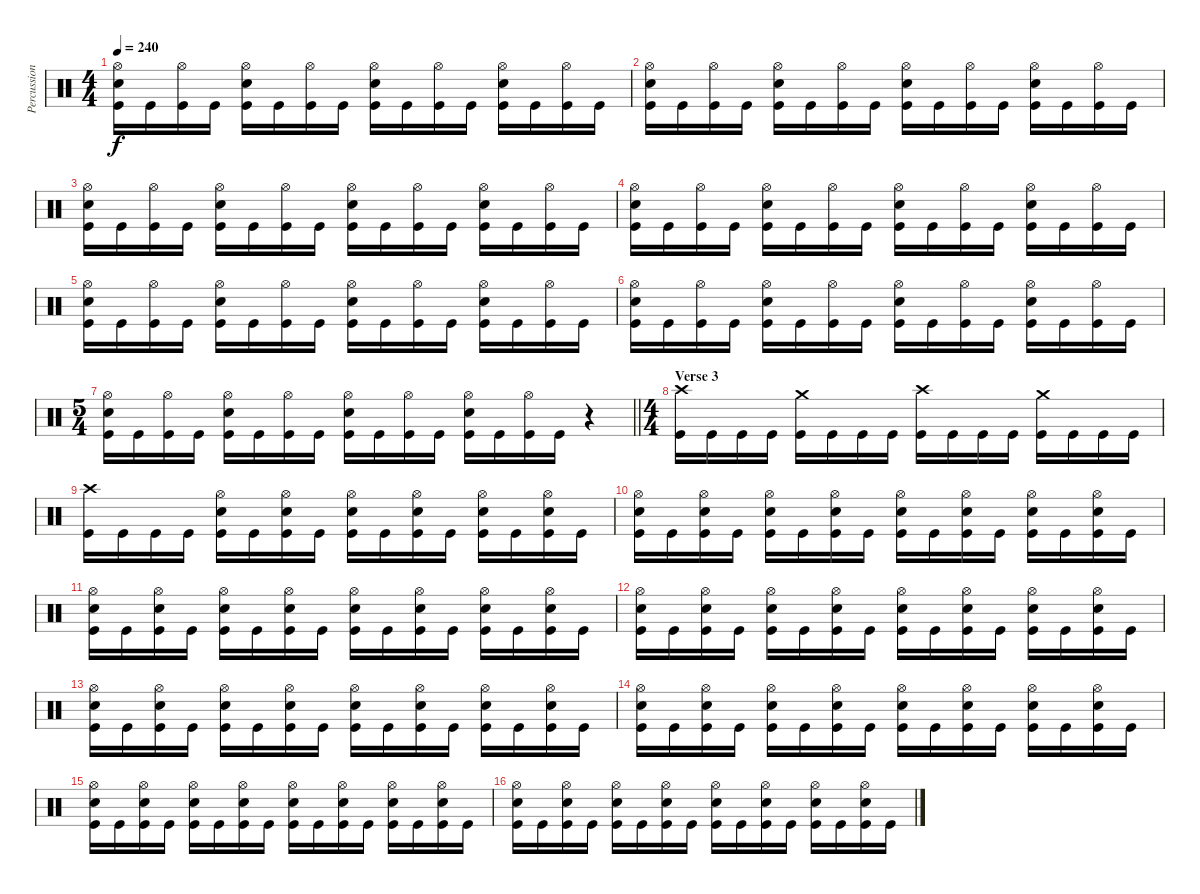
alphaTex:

\track ("Percussion" "Percussion") {instrument percussion}
\staff {score}
\articulation defaults
\ts (4 4)
\tempo 240
\clef neutral
\ks c
("Hi-Hat (open)" "Snare (hit) 2" "Kick (hit)").16{dy f} "Kick (hit)".16 ("Hi-Hat (open)" "Kick (hit)").16 "Kick (hit)".16 ("Hi-Hat (open)" "Snare (hit) 2" "Kick (hit)").16 "Kick (hit)".16 ("Hi-Hat (open)" "Kick (hit)").16 "Kick (hit)".16 ("Hi-Hat (open)" "Snare (hit) 2" "Kick (hit)").16 "Kick (hit)".16 ("Hi-Hat (open)" "Kick (hit)").16 "Kick (hit)".16 ("Hi-Hat (open)" "Snare (hit) 2" "Kick (hit)").16 "Kick (hit)".16 ("Hi-Hat (open)" "Kick (hit)").16 "Kick (hit)".16 |
("Hi-Hat (open)" "Snare (hit) 2" "Kick (hit)").16 "Kick (hit)".16 ("Hi-Hat (open)" "Kick (hit)").16 "Kick (hit)".16 ("Hi-Hat (open)" "Snare (hit) 2" "Kick (hit)").16 "Kick (hit)".16 ("Hi-Hat (open)" "Kick (hit)").16 "Kick (hit)".16 ("Hi-Hat (open)" "Snare (hit) 2" "Kick (hit)").16 "Kick (hit)".16 ("Hi-Hat (open)" "Kick (hit)").16 "Kick (hit)".16 ("Hi-Hat (open)" "Snare (hit) 2" "Kick (hit)").16 "Kick (hit)".16 ("Hi-Hat (open)" "Kick (hit)").16 "Kick (hit)".16 |
("Hi-Hat (open)" "Snare (hit) 2" "Kick (hit)").16 "Kick (hit)".16 ("Hi-Hat (open)" "Kick (hit)").16 "Kick (hit)".16 ("Hi-Hat (open)" "Snare (hit) 2" "Kick (hit)").16 "Kick (hit)".16 ("Hi-Hat (open)" "Kick (hit)").16 "Kick (hit)".16 ("Hi-Hat (open)" "Snare (hit) 2" "Kick (hit)").16 "Kick (hit)".16 ("Hi-Hat (open)" "Kick (hit)").16 "Kick (hit)".16 ("Hi-Hat (open)" "Snare (hit) 2" "Kick (hit)").16 "Kick (hit)".16 ("Hi-Hat (open)" "Kick (hit)").16 "Kick (hit)".16 |
("Hi-Hat (open)" "Snare (hit) 2" "Kick (hit)").16 "Kick (hit)".16 ("Hi-Hat (open)" "Kick (hit)").16 "Kick (hit)".16 ("Hi-Hat (open)" "Snare (hit) 2" "Kick (hit)").16 "Kick (hit)".16 ("Hi-Hat (open)" "Kick (hit)").16 "Kick (hit)".16 ("Hi-Hat (open)" "Snare (hit) 2" "Kick (hit)").16 "Kick (hit)".16 ("Hi-Hat (open)" "Kick (hit)").16 "Kick (hit)".16 ("Hi-Hat (open)" "Snare (hit) 2" "Kick (hit)").16 "Kick (hit)".16 ("Hi-Hat (open)" "Kick (hit)").16 "Kick (hit)".16 |
("Hi-Hat (open)" "Snare (hit) 2" "Kick (hit)").16 "Kick (hit)".16 ("Hi-Hat (open)" "Kick (hit)").16 "Kick (hit)".16 ("Hi-Hat (open)" "Snare (hit) 2" "Kick (hit)").16 "Kick (hit)".16 ("Hi-Hat (open)" "Kick (hit)").16 "Kick (hit)".16 ("Hi-Hat (open)" "Snare (hit) 2" "Kick (hit)").16 "Kick (hit)".16 ("Hi-Hat (open)" "Kick (hit)").16 "Kick (hit)".16 ("Hi-Hat (open)" "Snare (hit) 2" "Kick (hit)").16 "Kick (hit)".16 ("Hi-Hat (open)" "Kick (hit)").16 "Kick (hit)".16 |
("Hi-Hat (open)" "Snare (hit) 2" "Kick (hit)").16 "Kick (hit)".16 ("Hi-Hat (open)" "Kick (hit)").16 "Kick (hit)".16 ("Hi-Hat (open)" "Snare (hit) 2" "Kick (hit)").16 "Kick (hit)".16 ("Hi-Hat (open)" "Kick (hit)").16 "Kick (hit)".16 ("Hi-Hat (open)" "Snare (hit) 2" "Kick (hit)").16 "Kick (hit)".16 ("Hi-Hat (open)" "Kick (hit)").16 "Kick (hit)".16 ("Hi-Hat (open)" "Snare (hit) 2" "Kick (hit)").16 "Kick (hit)".16 ("Hi-Hat (open)" "Kick (hit)").16 "Kick (hit)".16 |
\ts (5 4)
\barLineRight lightlight
("Hi-Hat (open)" "Snare (hit) 2" "Kick (hit)").16 "Kick (hit)".16 ("Hi-Hat (open)" "Kick (hit)").16 "Kick (hit)".16 ("Hi-Hat (open)" "Snare (hit) 2" "Kick (hit)").16 "Kick (hit)".16 ("Hi-Hat (open)" "Kick (hit)").16 "Kick (hit)".16 ("Hi-Hat (open)" "Snare (hit) 2" "Kick (hit)").16 "Kick (hit)".16 ("Hi-Hat (open)" "Kick (hit)").16 "Kick (hit)".16 ("Hi-Hat (open)" "Snare (hit) 2" "Kick (hit)").16 "Kick (hit)".16 ("Hi-Hat (open)" "Kick (hit)").16 "Kick (hit)".16 r.4 |
\ts (4 4)
\section ("" "Verse 3")
("Crash high (hit)" "Kick (hit)").16 "Kick (hit)".16 "Kick (hit)".16 "Kick (hit)".16 ("Crash medium (hit)" "Kick (hit)").16 "Kick (hit)".16 "Kick (hit)".16 "Kick (hit)".16 ("Crash high (hit)" "Kick (hit)").16 "Kick (hit)".16 "Kick (hit)".16 "Kick (hit)".16 ("Crash medium (hit)" "Kick (hit)").16 "Kick (hit)".16 "Kick (hit)".16 "Kick (hit)".16 |
("Crash high (hit)" "Kick (hit)").16 "Kick (hit)".16 "Kick (hit)".16 "Kick (hit)".16 ("Hi-Hat (open)" "Snare (hit) 2" "Kick (hit)").16 "Kick (hit)".16 ("Hi-Hat (open)" "Snare (hit) 2" "Kick (hit)").16 "Kick (hit)".16 ("Hi-Hat (open)" "Snare (hit) 2" "Kick (hit)").16 "Kick (hit)".16 ("Hi-Hat (open)" "Snare (hit) 2" "Kick (hit)").16 "Kick (hit)".16 ("Hi-Hat (open)" "Snare (hit) 2" "Kick (hit)").16 "Kick (hit)".16 ("Hi-Hat (open)" "Snare (hit) 2" "Kick (hit)").16 "Kick (hit)".16 |
("Hi-Hat (open)" "Snare (hit) 2" "Kick (hit)").16 "Kick (hit)".16 ("Hi-Hat (open)" "Snare (hit) 2" "Kick (hit)").16 "Kick (hit)".16 ("Hi-Hat (open)" "Snare (hit) 2" "Kick (hit)").16 "Kick (hit)".16 ("Hi-Hat (open)" "Snare (hit) 2" "Kick (hit)").16 "Kick (hit)".16 ("Hi-Hat (open)" "Snare (hit) 2" "Kick (hit)").16 "Kick (hit)".16 ("Hi-Hat (open)" "Snare (hit) 2" "Kick (hit)").16 "Kick (hit)".16 ("Hi-Hat (open)" "Snare (hit) 2" "Kick (hit)").16 "Kick (hit)".16 ("Hi-Hat (open)" "Snare (hit) 2" "Kick (hit)").16 "Kick (hit)".16 |
("Hi-Hat (open)" "Snare (hit) 2" "Kick (hit)").16 "Kick (hit)".16 ("Hi-Hat (open)" "Snare (hit) 2" "Kick (hit)").16 "Kick (hit)".16 ("Hi-Hat (open)" "Snare (hit) 2" "Kick (hit)").16 "Kick (hit)".16 ("Hi-Hat (open)" "Snare (hit) 2" "Kick (hit)").16 "Kick (hit)".16 ("Hi-Hat (open)" "Snare (hit) 2" "Kick (hit)").16 "Kick (hit)".16 ("Hi-Hat (open)" "Snare (hit) 2" "Kick (hit)").16 "Kick (hit)".16 ("Hi-Hat (open)" "Snare (hit) 2" "Kick (hit)").16 "Kick (hit)".16 ("Hi-Hat (open)" "Snare (hit) 2" "Kick (hit)").16 "Kick (hit)".16 |
("Hi-Hat (open)" "Snare (hit) 2" "Kick (hit)").16 "Kick (hit)".16 ("Hi-Hat (open)" "Snare (hit) 2" "Kick (hit)").16 "Kick (hit)".16 ("Hi-Hat (open)" "Snare (hit) 2" "Kick (hit)").16 "Kick (hit)".16 ("Hi-Hat (open)" "Snare (hit) 2" "Kick (hit)").16 "Kick (hit)".16 ("Hi-Hat (open)" "Snare (hit) 2" "Kick (hit)").16 "Kick (hit)".16 ("Hi-Hat (open)" "Snare (hit) 2" "Kick (hit)").16 "Kick (hit)".16 ("Hi-Hat (open)" "Snare (hit) 2" "Kick (hit)").16 "Kick (hit)".16 ("Hi-Hat (open)" "Snare (hit) 2" "Kick (hit)").16 "Kick (hit)".16 |
("Hi-Hat (open)" "Snare (hit) 2" "Kick (hit)").16 "Kick (hit)".16 ("Hi-Hat (open)" "Snare (hit) 2" "Kick (hit)").16 "Kick (hit)".16 ("Hi-Hat (open)" "Snare (hit) 2" "Kick (hit)").16 "Kick (hit)".16 ("Hi-Hat (open)" "Snare (hit) 2" "Kick (hit)").16 "Kick (hit)".16 ("Hi-Hat (open)" "Snare (hit) 2" "Kick (hit)").16 "Kick (hit)".16 ("Hi-Hat (open)" "Snare (hit) 2" "Kick (hit)").16 "Kick (hit)".16 ("Hi-Hat (open)" "Snare (hit) 2" "Kick (hit)").16 "Kick (hit)".16 ("Hi-Hat (open)" "Snare (hit) 2" "Kick (hit)").16 "Kick (hit)".16 |
("Hi-Hat (open)" "Snare (hit) 2" "Kick (hit)").16 "Kick (hit)".16 ("Hi-Hat (open)" "Snare (hit) 2" "Kick (hit)").16 "Kick (hit)".16 ("Hi-Hat (open)" "Snare (hit) 2" "Kick (hit)").16 "Kick (hit)".16 ("Hi-Hat (open)" "Snare (hit) 2" "Kick (hit)").16 "Kick (hit)".16 ("Hi-Hat (open)" "Snare (hit) 2" "Kick (hit)").16 "Kick (hit)".16 ("Hi-Hat (open)" "Snare (hit) 2" "Kick (hit)").16 "Kick (hit)".16 ("Hi-Hat (open)" "Snare (hit) 2" "Kick (hit)").16 "Kick (hit)".16 ("Hi-Hat (open)" "Snare (hit) 2" "Kick (hit)").16 "Kick (hit)".16 |
("Hi-Hat (open)" "Snare (hit) 2" "Kick (hit)").16 "Kick (hit)".16 ("Hi-Hat (open)" "Snare (hit) 2" "Kick (hit)").16 "Kick (hit)".16 ("Hi-Hat (open)" "Snare (hit) 2" "Kick (hit)").16 "Kick (hit)".16 ("Hi-Hat (open)" "Snare (hit) 2" "Kick (hit)").16 "Kick (hit)".16 ("Hi-Hat (open)" "Snare (hit) 2" "Kick (hit)").16 "Kick (hit)".16 ("Hi-Hat (open)" "Snare (hit) 2" "Kick (hit)").16 "Kick (hit)".16 ("Hi-Hat (open)" "Snare (hit) 2" "Kick (hit)").16 "Kick (hit)".16 ("Hi-Hat (open)" "Snare (hit) 2" "Kick (hit)").16 "Kick (hit)".16 |
("Hi-Hat (open)" "Snare (hit) 2" "Kick (hit)").16 "Kick (hit)".16 ("Hi-Hat (open)" "Snare (hit) 2" "Kick (hit)").16 "Kick (hit)".16 ("Hi-Hat (open)" "Snare (hit) 2" "Kick (hit)").16 "Kick (hit)".16 ("Hi-Hat (open)" "Snare (hit) 2" "Kick (hit)").16 "Kick (hit)".16 ("Hi-Hat (open)" "Snare (hit) 2" "Kick (hit)").16 "Kick (hit)".16 ("Hi-Hat (open)" "Snare (hit) 2" "Kick (hit)").16 "Kick (hit)".16 ("Hi-Hat (open)" "Snare (hit) 2" "Kick (hit)").16 "Kick (hit)".16 ("Hi-Hat (open)" "Snare (hit) 2" "Kick (hit)").16 "Kick (hit)".16
